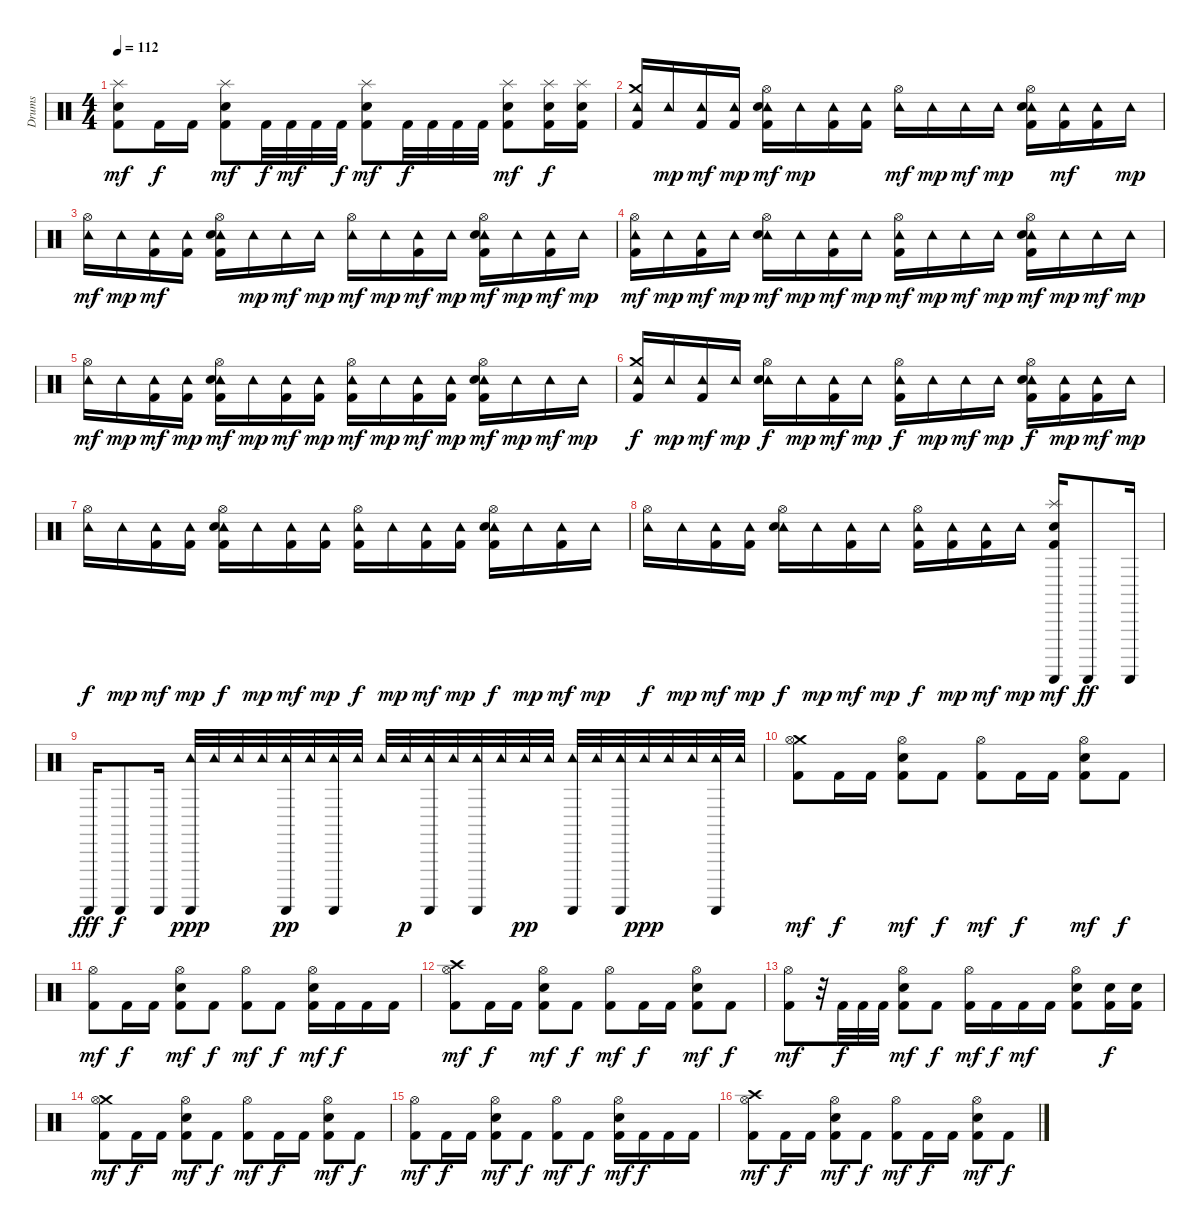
\track ("Drums" "Drums") {instrument percussion}
\staff {score}
\articulation defaults
\ts (4 4)
\tempo 112
\clef neutral
\ks c
("Splash (hit)" "Electric Snare (hit)" "Kick (hit) 2").8{dy mf} "Kick (hit) 2".16{dy f} "Kick (hit) 2".16 ("Splash (hit)" "Electric Snare (hit)" "Kick (hit) 2").8{dy mf} "Kick (hit) 2".32{dy f} "Kick (hit) 2".32{dy mf} "Kick (hit) 2".32 "Kick (hit) 2".32{dy f} ("Splash (hit)" "Electric Snare (hit)" "Kick (hit) 2").8{dy mf} "Kick (hit) 2".32{dy f} "Kick (hit) 2".32 "Kick (hit) 2".32 "Kick (hit) 2".32 ("Splash (hit)" "Electric Snare (hit)" "Kick (hit) 2").8{dy mf} ("Splash (hit)" "Electric Snare (hit)" "Kick (hit) 2").16{dy f} ("Splash (hit)" "Electric Snare (hit)" "Kick (hit) 2").16 |
("Crash medium (hit)" "Tambourine (hit)" "Kick (hit) 2").16 "Tambourine (hit)".16{dy mp} ("Tambourine (hit)" "Kick (hit) 2").16{dy mf} ("Tambourine (hit)" "Kick (hit) 2").16{dy mp} ("Tambourine (hit)" "Hi-Hat (open)" "Electric Snare (hit)" "Kick (hit) 2").16{dy mf} "Tambourine (hit)".16{dy mp} ("Tambourine (hit)" "Kick (hit) 2").16 ("Tambourine (hit)" "Kick (hit) 2").16 ("Tambourine (hit)" "Hi-Hat (open)").16{dy mf} "Tambourine (hit)".16{dy mp} "Tambourine (hit)".16{dy mf} "Tambourine (hit)".16{dy mp} ("Tambourine (hit)" "Hi-Hat (open)" "Electric Snare (hit)" "Kick (hit) 2").16 ("Tambourine (hit)" "Kick (hit) 2").16{dy mf} ("Tambourine (hit)" "Kick (hit) 2").16 "Tambourine (hit)".16{dy mp} |
("Tambourine (hit)" "Hi-Hat (open)").16{dy mf} "Tambourine (hit)".16{dy mp} ("Tambourine (hit)" "Kick (hit) 2").16{dy mf} ("Tambourine (hit)" "Kick (hit) 2").16 ("Tambourine (hit)" "Hi-Hat (open)" "Electric Snare (hit)" "Kick (hit) 2").16 "Tambourine (hit)".16{dy mp} "Tambourine (hit)".16{dy mf} "Tambourine (hit)".16{dy mp} ("Tambourine (hit)" "Hi-Hat (open)").16{dy mf} "Tambourine (hit)".16{dy mp} ("Tambourine (hit)" "Kick (hit) 2").16{dy mf} "Tambourine (hit)".16{dy mp} ("Tambourine (hit)" "Hi-Hat (open)" "Electric Snare (hit)" "Kick (hit) 2").16{dy mf} "Tambourine (hit)".16{dy mp} ("Tambourine (hit)" "Kick (hit) 2").16{dy mf} "Tambourine (hit)".16{dy mp} |
("Tambourine (hit)" "Hi-Hat (open)" "Kick (hit) 2").16{dy mf} "Tambourine (hit)".16{dy mp} ("Tambourine (hit)" "Kick (hit) 2").16{dy mf} "Tambourine (hit)".16{dy mp} ("Tambourine (hit)" "Hi-Hat (open)" "Electric Snare (hit)").16{dy mf} "Tambourine (hit)".16{dy mp} ("Tambourine (hit)" "Kick (hit) 2").16{dy mf} "Tambourine (hit)".16{dy mp} ("Tambourine (hit)" "Hi-Hat (open)" "Kick (hit) 2").16{dy mf} "Tambourine (hit)".16{dy mp} "Tambourine (hit)".16{dy mf} "Tambourine (hit)".16{dy mp} ("Tambourine (hit)" "Hi-Hat (open)" "Electric Snare (hit)" "Kick (hit) 2").16{dy mf} "Tambourine (hit)".16{dy mp} "Tambourine (hit)".16{dy mf} "Tambourine (hit)".16{dy mp} |
("Tambourine (hit)" "Hi-Hat (open)").16{dy mf} "Tambourine (hit)".16{dy mp} ("Tambourine (hit)" "Kick (hit) 2").16{dy mf} ("Tambourine (hit)" "Kick (hit) 2").16{dy mp} ("Tambourine (hit)" "Hi-Hat (open)" "Electric Snare (hit)" "Kick (hit) 2").16{dy mf} "Tambourine (hit)".16{dy mp} ("Tambourine (hit)" "Kick (hit) 2").16{dy mf} ("Tambourine (hit)" "Kick (hit) 2").16{dy mp} ("Tambourine (hit)" "Hi-Hat (open)" "Kick (hit) 2").16{dy mf} "Tambourine (hit)".16{dy mp} ("Tambourine (hit)" "Kick (hit) 2").16{dy mf} ("Tambourine (hit)" "Kick (hit) 2").16{dy mp} ("Tambourine (hit)" "Hi-Hat (open)" "Electric Snare (hit)" "Kick (hit) 2").16{dy mf} "Tambourine (hit)".16{dy mp} "Tambourine (hit)".16{dy mf} "Tambourine (hit)".16{dy mp} |
("Crash medium (hit)" "Tambourine (hit)" "Kick (hit) 2").16{dy f} "Tambourine (hit)".16{dy mp} ("Tambourine (hit)" "Kick (hit) 2").16{dy mf} "Tambourine (hit)".16{dy mp} ("Tambourine (hit)" "Hi-Hat (open)" "Electric Snare (hit)").16{dy f} "Tambourine (hit)".16{dy mp} ("Tambourine (hit)" "Kick (hit) 2").16{dy mf} "Tambourine (hit)".16{dy mp} ("Tambourine (hit)" "Hi-Hat (open)" "Kick (hit) 2").16{dy f} "Tambourine (hit)".16{dy mp} "Tambourine (hit)".16{dy mf} "Tambourine (hit)".16{dy mp} ("Tambourine (hit)" "Hi-Hat (open)" "Electric Snare (hit)" "Kick (hit) 2").16{dy f} ("Tambourine (hit)" "Kick (hit) 2").16{dy mp} ("Tambourine (hit)" "Kick (hit) 2").16{dy mf} "Tambourine (hit)".16{dy mp} |
("Tambourine (hit)" "Hi-Hat (open)").16{dy f} "Tambourine (hit)".16{dy mp} ("Tambourine (hit)" "Kick (hit) 2").16{dy mf} ("Tambourine (hit)" "Kick (hit) 2").16{dy mp} ("Tambourine (hit)" "Hi-Hat (open)" "Electric Snare (hit)" "Kick (hit) 2").16{dy f} "Tambourine (hit)".16{dy mp} ("Tambourine (hit)" "Kick (hit) 2").16{dy mf} ("Tambourine (hit)" "Kick (hit) 2").16{dy mp} ("Tambourine (hit)" "Hi-Hat (open)" "Kick (hit) 2").16{dy f} "Tambourine (hit)".16{dy mp} ("Tambourine (hit)" "Kick (hit) 2").16{dy mf} ("Tambourine (hit)" "Kick (hit) 2").16{dy mp} ("Tambourine (hit)" "Hi-Hat (open)" "Electric Snare (hit)" "Kick (hit) 2").16{dy f} "Tambourine (hit)".16{dy mp} ("Tambourine (hit)" "Kick (hit) 2").16{dy mf} "Tambourine (hit)".16{dy mp} |
("Tambourine (hit)" "Hi-Hat (open)").16{dy f} "Tambourine (hit)".16{dy mp} ("Tambourine (hit)" "Kick (hit) 2").16{dy mf} ("Tambourine (hit)" "Kick (hit) 2").16{dy mp} ("Tambourine (hit)" "Hi-Hat (open)" "Electric Snare (hit)").16{dy f} "Tambourine (hit)".16{dy mp} ("Tambourine (hit)" "Kick (hit) 2").16{dy mf} "Tambourine (hit)".16{dy mp} ("Tambourine (hit)" "Hi-Hat (open)" "Kick (hit) 2").16{dy f} ("Tambourine (hit)" "Kick (hit) 2").16{dy mp} ("Tambourine (hit)" "Kick (hit) 2").16{dy mf} "Tambourine (hit)".16{dy mp} ("Guiro (scrap-return)" "Splash (hit)" "Electric Snare (hit)" "Kick (hit) 2").16{dy mf} "Guiro (scrap-return)".8{dy ff} "Guiro (scrap-return)".16 |
"Guiro (scrap-return)".16{dy fff} "Guiro (scrap-return)".8{dy f} "Guiro (scrap-return)".16 ("Guiro (scrap-return)" "Tambourine (hit)").32{dy ppp} "Tambourine (hit)".32 "Tambourine (hit)".32 "Tambourine (hit)".32 ("Guiro (scrap-return)" "Tambourine (hit)").32{dy pp} "Tambourine (hit)".32 ("Guiro (scrap-return)" "Tambourine (hit)").32 "Tambourine (hit)".32 "Tambourine (hit)".32 "Tambourine (hit)".32{dy p} ("Guiro (scrap-return)" "Tambourine (hit)").32 "Tambourine (hit)".32 ("Guiro (scrap-return)" "Tambourine (hit)").32 "Tambourine (hit)".32 "Tambourine (hit)".32{dy pp} "Tambourine (hit)".32 ("Guiro (scrap-return)" "Tambourine (hit)").32 "Tambourine (hit)".32 ("Guiro (scrap-return)" "Tambourine (hit)").32 "Tambourine (hit)".32{dy ppp} "Tambourine (hit)".32 "Tambourine (hit)".32 ("Guiro (scrap-return)" "Tambourine (hit)").32 "Tambourine (hit)".32 |
("Crash medium (hit)" "Hi-Hat (open)" "Kick (hit) 2").8{dy mf} "Kick (hit) 2".16{dy f} "Kick (hit) 2".16 ("Hi-Hat (open)" "Electric Snare (hit)" "Kick (hit) 2").8{dy mf} "Kick (hit) 2".8{dy f} ("Hi-Hat (open)" "Kick (hit) 2").8{dy mf} "Kick (hit) 2".16{dy f} "Kick (hit) 2".16 ("Hi-Hat (open)" "Electric Snare (hit)" "Kick (hit) 2").8{dy mf} "Kick (hit) 2".8{dy f} |
("Hi-Hat (open)" "Kick (hit) 2").8{dy mf} "Kick (hit) 2".16{dy f} "Kick (hit) 2".16 ("Hi-Hat (open)" "Electric Snare (hit)" "Kick (hit) 2").8{dy mf} "Kick (hit) 2".8{dy f} ("Hi-Hat (open)" "Kick (hit) 2").8{dy mf} "Kick (hit) 2".8{dy f} ("Hi-Hat (open)" "Electric Snare (hit)" "Kick (hit) 2").16{dy mf} "Kick (hit) 2".16{dy f} "Kick (hit) 2".16 "Kick (hit) 2".16 |
("Crash high (hit)" "Hi-Hat (open)" "Kick (hit) 2").8{dy mf} "Kick (hit) 2".16{dy f} "Kick (hit) 2".16 ("Hi-Hat (open)" "Electric Snare (hit)" "Kick (hit) 2").8{dy mf} "Kick (hit) 2".8{dy f} ("Hi-Hat (open)" "Kick (hit) 2").8{dy mf} "Kick (hit) 2".16{dy f} "Kick (hit) 2".16 ("Hi-Hat (open)" "Electric Snare (hit)" "Kick (hit) 2").8{dy mf} "Kick (hit) 2".8{dy f} |
("Hi-Hat (open)" "Kick (hit) 2").8{dy mf} r.32 "Kick (hit) 2".32{dy f} "Kick (hit) 2".32 "Kick (hit) 2".32 ("Hi-Hat (open)" "Electric Snare (hit)" "Kick (hit) 2").8{dy mf} "Kick (hit) 2".8{dy f} ("Hi-Hat (open)" "Kick (hit) 2").16{dy mf} "Kick (hit) 2".16{dy f} "Kick (hit) 2".16{dy mf} "Kick (hit) 2".16 ("Hi-Hat (open)" "Electric Snare (hit)" "Kick (hit) 2").8 ("Electric Snare (hit)" "Kick (hit) 2").16{dy f} ("Electric Snare (hit)" "Kick (hit) 2").16 |
("Crash medium (hit)" "Hi-Hat (open)" "Kick (hit) 2").8{dy mf} "Kick (hit) 2".16{dy f} "Kick (hit) 2".16 ("Hi-Hat (open)" "Electric Snare (hit)" "Kick (hit) 2").8{dy mf} "Kick (hit) 2".8{dy f} ("Hi-Hat (open)" "Kick (hit) 2").8{dy mf} "Kick (hit) 2".16{dy f} "Kick (hit) 2".16 ("Hi-Hat (open)" "Electric Snare (hit)" "Kick (hit) 2").8{dy mf} "Kick (hit) 2".8{dy f} |
("Hi-Hat (open)" "Kick (hit) 2").8{dy mf} "Kick (hit) 2".16{dy f} "Kick (hit) 2".16 ("Hi-Hat (open)" "Electric Snare (hit)" "Kick (hit) 2").8{dy mf} "Kick (hit) 2".8{dy f} ("Hi-Hat (open)" "Kick (hit) 2").8{dy mf} "Kick (hit) 2".8{dy f} ("Hi-Hat (open)" "Electric Snare (hit)" "Kick (hit) 2").16{dy mf} "Kick (hit) 2".16{dy f} "Kick (hit) 2".16 "Kick (hit) 2".16 |
("Crash high (hit)" "Hi-Hat (open)" "Kick (hit) 2").8{dy mf} "Kick (hit) 2".16{dy f} "Kick (hit) 2".16 ("Hi-Hat (open)" "Electric Snare (hit)" "Kick (hit) 2").8{dy mf} "Kick (hit) 2".8{dy f} ("Hi-Hat (open)" "Kick (hit) 2").8{dy mf} "Kick (hit) 2".16{dy f} "Kick (hit) 2".16 ("Hi-Hat (open)" "Electric Snare (hit)" "Kick (hit) 2").8{dy mf} "Kick (hit) 2".8{dy f}
